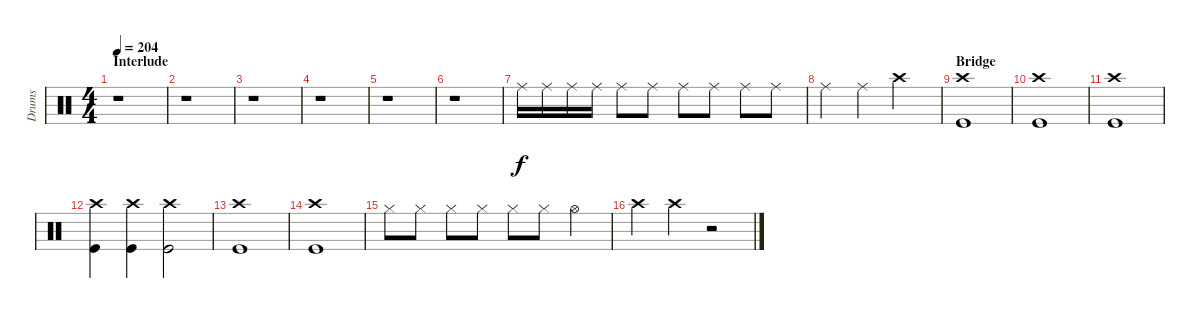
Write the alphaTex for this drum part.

\track ("Drums" "Drums") {instrument percussion}
\staff {score}
\articulation defaults
\ts (4 4)
\section ("" "Interlude")
\tempo 204
\clef neutral
\ks c
r.1{dy fff} |
r.1 |
r.1 |
r.1 |
r.1 |
r.1 |
"Ride (middle)".16{dy f} "Ride (middle)".16 "Ride (middle)".16 "Ride (middle)".16 "Ride (middle)".8 "Ride (middle)".8 "Ride (middle)".8 "Ride (middle)".8 "Ride (middle)".8 "Ride (middle)".8 |
"Ride (middle)".4 "Ride (middle)".4 "Crash high (hit)".2 |
\section ("" "Bridge")
("Crash high (hit)" "Kick (hit)").1 |
("Crash high (hit)" "Kick (hit)").1 |
("Crash high (hit)" "Kick (hit)").1 |
("Crash high (hit)" "Kick (hit)").4 ("Crash high (hit)" "Kick (hit)").4 ("Crash high (hit)" "Kick (hit)").2 |
("Crash high (hit)" "Kick (hit)").1 |
("Crash high (hit)" "Kick (hit)").1 |
"Hi-Hat (closed)".8 "Hi-Hat (closed)".8 "Hi-Hat (closed)".8 "Hi-Hat (closed)".8 "Hi-Hat (closed)".8 "Hi-Hat (closed)".8 "Hi-Hat (open)".4 |
"Crash high (hit)".4 "Crash high (hit)".4 r.2
